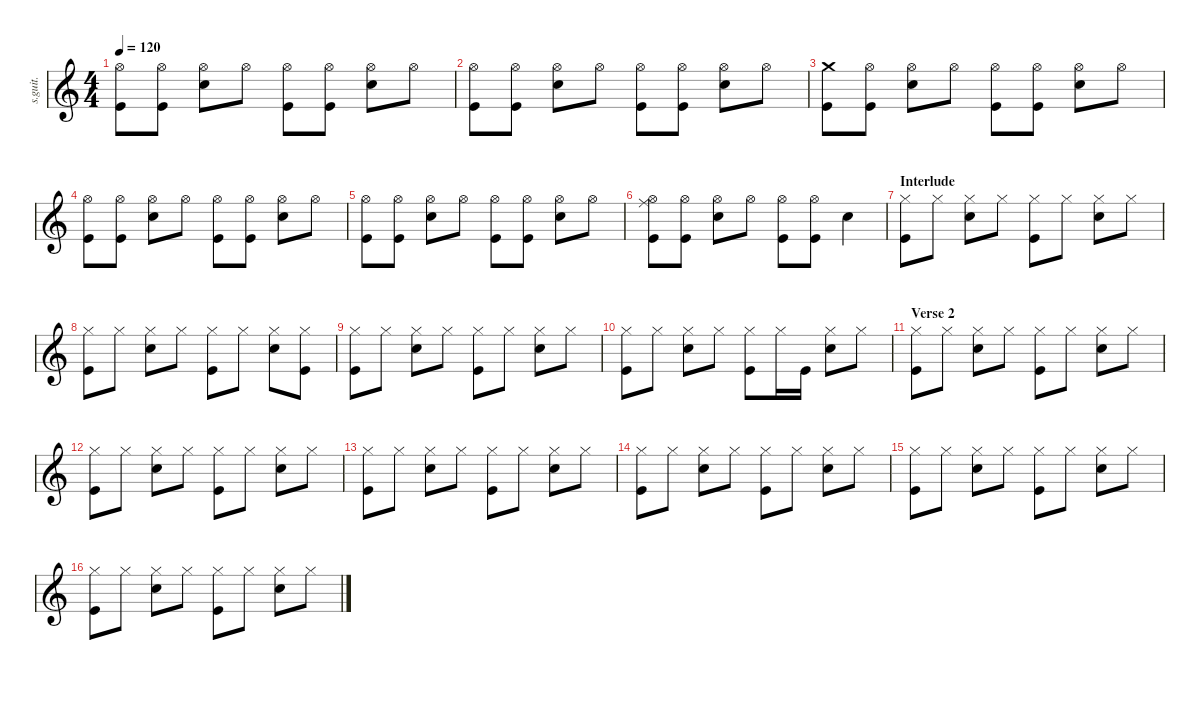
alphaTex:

\defaultSystemsLayout 4
\hideDynamics
\bracketExtendMode nobrackets
\track ("Patrick Wilson - Drums" "s.guit.") {instrument percussion}
\staff {score}
\articulation defaults
\ts (4 4)
\tempo 120
\clef g2
\ks c
("Hi-Hat (open)" "Kick (hit)").8{lyrics (0 "") lyrics (1 "") lyrics (2 "") lyrics (3 "") lyrics (4 "") dy f} ("Hi-Hat (open)" "Kick (hit)").8{lyrics (0 "") lyrics (1 "") lyrics (2 "") lyrics (3 "") lyrics (4 "")} ("Hi-Hat (open)" "Snare (hit) 2").8{lyrics (0 "") lyrics (1 "") lyrics (2 "") lyrics (3 "") lyrics (4 "")} "Hi-Hat (open)".8{lyrics (0 "") lyrics (1 "") lyrics (2 "") lyrics (3 "") lyrics (4 "")} ("Hi-Hat (open)" "Kick (hit)").8{lyrics (0 "") lyrics (1 "") lyrics (2 "") lyrics (3 "") lyrics (4 "")} ("Hi-Hat (open)" "Kick (hit)").8{lyrics (0 "") lyrics (1 "") lyrics (2 "") lyrics (3 "") lyrics (4 "")} ("Hi-Hat (open)" "Snare (hit) 2").8{lyrics (0 "") lyrics (1 "") lyrics (2 "") lyrics (3 "") lyrics (4 "")} "Hi-Hat (open)".8{lyrics (0 "") lyrics (1 "") lyrics (2 "") lyrics (3 "") lyrics (4 "")} |
("Hi-Hat (open)" "Kick (hit)").8{lyrics (0 "") lyrics (1 "") lyrics (2 "") lyrics (3 "") lyrics (4 "")} ("Hi-Hat (open)" "Kick (hit)").8{lyrics (0 "") lyrics (1 "") lyrics (2 "") lyrics (3 "") lyrics (4 "")} ("Hi-Hat (open)" "Snare (hit) 2").8{lyrics (0 "") lyrics (1 "") lyrics (2 "") lyrics (3 "") lyrics (4 "")} "Hi-Hat (open)".8{lyrics (0 "") lyrics (1 "") lyrics (2 "") lyrics (3 "") lyrics (4 "")} ("Hi-Hat (open)" "Kick (hit)").8{lyrics (0 "") lyrics (1 "") lyrics (2 "") lyrics (3 "") lyrics (4 "")} ("Hi-Hat (open)" "Kick (hit)").8{lyrics (0 "") lyrics (1 "") lyrics (2 "") lyrics (3 "") lyrics (4 "")} ("Hi-Hat (open)" "Snare (hit) 2").8{lyrics (0 "") lyrics (1 "") lyrics (2 "") lyrics (3 "") lyrics (4 "")} "Hi-Hat (open)".8{lyrics (0 "") lyrics (1 "") lyrics (2 "") lyrics (3 "") lyrics (4 "")} |
("Crash medium (hit)" "Kick (hit)").8{lyrics (0 "") lyrics (1 "") lyrics (2 "") lyrics (3 "") lyrics (4 "")} ("Hi-Hat (open)" "Kick (hit)").8{lyrics (0 "") lyrics (1 "") lyrics (2 "") lyrics (3 "") lyrics (4 "")} ("Hi-Hat (open)" "Snare (hit) 2").8{lyrics (0 "") lyrics (1 "") lyrics (2 "") lyrics (3 "") lyrics (4 "")} "Hi-Hat (open)".8{lyrics (0 "") lyrics (1 "") lyrics (2 "") lyrics (3 "") lyrics (4 "")} ("Hi-Hat (open)" "Kick (hit)").8{lyrics (0 "") lyrics (1 "") lyrics (2 "") lyrics (3 "") lyrics (4 "")} ("Hi-Hat (open)" "Kick (hit)").8{lyrics (0 "") lyrics (1 "") lyrics (2 "") lyrics (3 "") lyrics (4 "")} ("Hi-Hat (open)" "Snare (hit) 2").8{lyrics (0 "") lyrics (1 "") lyrics (2 "") lyrics (3 "") lyrics (4 "")} "Hi-Hat (open)".8{lyrics (0 "") lyrics (1 "") lyrics (2 "") lyrics (3 "") lyrics (4 "")} |
("Hi-Hat (open)" "Kick (hit)").8{lyrics (0 "") lyrics (1 "") lyrics (2 "") lyrics (3 "") lyrics (4 "")} ("Hi-Hat (open)" "Kick (hit)").8{lyrics (0 "") lyrics (1 "") lyrics (2 "") lyrics (3 "") lyrics (4 "")} ("Hi-Hat (open)" "Snare (hit) 2").8{lyrics (0 "") lyrics (1 "") lyrics (2 "") lyrics (3 "") lyrics (4 "")} "Hi-Hat (open)".8{lyrics (0 "") lyrics (1 "") lyrics (2 "") lyrics (3 "") lyrics (4 "")} ("Hi-Hat (open)" "Kick (hit)").8{lyrics (0 "") lyrics (1 "") lyrics (2 "") lyrics (3 "") lyrics (4 "")} ("Hi-Hat (open)" "Kick (hit)").8{lyrics (0 "") lyrics (1 "") lyrics (2 "") lyrics (3 "") lyrics (4 "")} ("Hi-Hat (open)" "Snare (hit) 2").8{lyrics (0 "") lyrics (1 "") lyrics (2 "") lyrics (3 "") lyrics (4 "")} "Hi-Hat (open)".8{lyrics (0 "") lyrics (1 "") lyrics (2 "") lyrics (3 "") lyrics (4 "")} |
("Hi-Hat (open)" "Kick (hit)").8{lyrics (0 "") lyrics (1 "") lyrics (2 "") lyrics (3 "") lyrics (4 "")} ("Hi-Hat (open)" "Kick (hit)").8{lyrics (0 "") lyrics (1 "") lyrics (2 "") lyrics (3 "") lyrics (4 "")} ("Hi-Hat (open)" "Snare (hit) 2").8{lyrics (0 "") lyrics (1 "") lyrics (2 "") lyrics (3 "") lyrics (4 "")} "Hi-Hat (open)".8{lyrics (0 "") lyrics (1 "") lyrics (2 "") lyrics (3 "") lyrics (4 "")} ("Hi-Hat (open)" "Kick (hit)").8{lyrics (0 "") lyrics (1 "") lyrics (2 "") lyrics (3 "") lyrics (4 "")} ("Hi-Hat (open)" "Kick (hit)").8{lyrics (0 "") lyrics (1 "") lyrics (2 "") lyrics (3 "") lyrics (4 "")} ("Hi-Hat (open)" "Snare (hit) 2").8{lyrics (0 "") lyrics (1 "") lyrics (2 "") lyrics (3 "") lyrics (4 "")} "Hi-Hat (open)".8{lyrics (0 "") lyrics (1 "") lyrics (2 "") lyrics (3 "") lyrics (4 "")} |
("Hi-Hat (open)" "Kick (hit)" "Ride (middle)").8{lyrics (0 "") lyrics (1 "") lyrics (2 "") lyrics (3 "") lyrics (4 "")} ("Hi-Hat (open)" "Kick (hit)").8{lyrics (0 "") lyrics (1 "") lyrics (2 "") lyrics (3 "") lyrics (4 "")} ("Hi-Hat (open)" "Snare (hit) 2").8{lyrics (0 "") lyrics (1 "") lyrics (2 "") lyrics (3 "") lyrics (4 "")} "Hi-Hat (open)".8{lyrics (0 "") lyrics (1 "") lyrics (2 "") lyrics (3 "") lyrics (4 "")} ("Hi-Hat (open)" "Kick (hit)").8{lyrics (0 "") lyrics (1 "") lyrics (2 "") lyrics (3 "") lyrics (4 "")} ("Hi-Hat (open)" "Kick (hit)").8{lyrics (0 "") lyrics (1 "") lyrics (2 "") lyrics (3 "") lyrics (4 "")} "Snare (hit) 2".4{lyrics (0 "") lyrics (1 "") lyrics (2 "") lyrics (3 "") lyrics (4 "")} |
\section ("" "Interlude")
("Hi-Hat (closed)" "Kick (hit)").8{lyrics (0 "") lyrics (1 "") lyrics (2 "") lyrics (3 "") lyrics (4 "")} "Hi-Hat (closed)".8{lyrics (0 "") lyrics (1 "") lyrics (2 "") lyrics (3 "") lyrics (4 "")} ("Hi-Hat (closed)" "Snare (hit) 2").8{lyrics (0 "") lyrics (1 "") lyrics (2 "") lyrics (3 "") lyrics (4 "")} "Hi-Hat (closed)".8{lyrics (0 "") lyrics (1 "") lyrics (2 "") lyrics (3 "") lyrics (4 "")} ("Hi-Hat (closed)" "Kick (hit)").8{lyrics (0 "") lyrics (1 "") lyrics (2 "") lyrics (3 "") lyrics (4 "")} "Hi-Hat (closed)".8{lyrics (0 "") lyrics (1 "") lyrics (2 "") lyrics (3 "") lyrics (4 "")} ("Hi-Hat (closed)" "Snare (hit) 2").8{lyrics (0 "") lyrics (1 "") lyrics (2 "") lyrics (3 "") lyrics (4 "")} "Hi-Hat (closed)".8{lyrics (0 "") lyrics (1 "") lyrics (2 "") lyrics (3 "") lyrics (4 "")} |
("Hi-Hat (closed)" "Kick (hit)").8{lyrics (0 "") lyrics (1 "") lyrics (2 "") lyrics (3 "") lyrics (4 "")} "Hi-Hat (closed)".8{lyrics (0 "") lyrics (1 "") lyrics (2 "") lyrics (3 "") lyrics (4 "")} ("Hi-Hat (closed)" "Snare (hit) 2").8{lyrics (0 "") lyrics (1 "") lyrics (2 "") lyrics (3 "") lyrics (4 "")} "Hi-Hat (closed)".8{lyrics (0 "") lyrics (1 "") lyrics (2 "") lyrics (3 "") lyrics (4 "")} ("Hi-Hat (closed)" "Kick (hit)").8{lyrics (0 "") lyrics (1 "") lyrics (2 "") lyrics (3 "") lyrics (4 "")} "Hi-Hat (closed)".8{lyrics (0 "") lyrics (1 "") lyrics (2 "") lyrics (3 "") lyrics (4 "")} ("Hi-Hat (closed)" "Snare (hit) 2").8{lyrics (0 "") lyrics (1 "") lyrics (2 "") lyrics (3 "") lyrics (4 "")} ("Hi-Hat (closed)" "Kick (hit)").8{lyrics (0 "") lyrics (1 "") lyrics (2 "") lyrics (3 "") lyrics (4 "")} |
("Hi-Hat (closed)" "Kick (hit)").8{lyrics (0 "") lyrics (1 "") lyrics (2 "") lyrics (3 "") lyrics (4 "")} "Hi-Hat (closed)".8{lyrics (0 "") lyrics (1 "") lyrics (2 "") lyrics (3 "") lyrics (4 "")} ("Hi-Hat (closed)" "Snare (hit) 2").8{lyrics (0 "") lyrics (1 "") lyrics (2 "") lyrics (3 "") lyrics (4 "")} "Hi-Hat (closed)".8{lyrics (0 "") lyrics (1 "") lyrics (2 "") lyrics (3 "") lyrics (4 "")} ("Hi-Hat (closed)" "Kick (hit)").8{lyrics (0 "") lyrics (1 "") lyrics (2 "") lyrics (3 "") lyrics (4 "")} "Hi-Hat (closed)".8{lyrics (0 "") lyrics (1 "") lyrics (2 "") lyrics (3 "") lyrics (4 "")} ("Hi-Hat (closed)" "Snare (hit) 2").8{lyrics (0 "") lyrics (1 "") lyrics (2 "") lyrics (3 "") lyrics (4 "")} "Hi-Hat (closed)".8{lyrics (0 "") lyrics (1 "") lyrics (2 "") lyrics (3 "") lyrics (4 "")} |
("Hi-Hat (closed)" "Kick (hit)").8{lyrics (0 "") lyrics (1 "") lyrics (2 "") lyrics (3 "") lyrics (4 "")} "Hi-Hat (closed)".8{lyrics (0 "") lyrics (1 "") lyrics (2 "") lyrics (3 "") lyrics (4 "")} ("Hi-Hat (closed)" "Snare (hit) 2").8{lyrics (0 "") lyrics (1 "") lyrics (2 "") lyrics (3 "") lyrics (4 "")} "Hi-Hat (closed)".8{lyrics (0 "") lyrics (1 "") lyrics (2 "") lyrics (3 "") lyrics (4 "")} ("Hi-Hat (closed)" "Kick (hit)").8{lyrics (0 "") lyrics (1 "") lyrics (2 "") lyrics (3 "") lyrics (4 "")} "Hi-Hat (closed)".16{lyrics (0 "") lyrics (1 "") lyrics (2 "") lyrics (3 "") lyrics (4 "")} "Kick (hit)".16{lyrics (0 "") lyrics (1 "") lyrics (2 "") lyrics (3 "") lyrics (4 "")} ("Hi-Hat (closed)" "Snare (hit) 2").8{lyrics (0 "") lyrics (1 "") lyrics (2 "") lyrics (3 "") lyrics (4 "")} "Hi-Hat (closed)".8{lyrics (0 "") lyrics (1 "") lyrics (2 "") lyrics (3 "") lyrics (4 "")} |
\section ("" "Verse 2")
("Hi-Hat (closed)" "Kick (hit)").8{lyrics (0 "") lyrics (1 "") lyrics (2 "") lyrics (3 "") lyrics (4 "")} "Hi-Hat (closed)".8{lyrics (0 "") lyrics (1 "") lyrics (2 "") lyrics (3 "") lyrics (4 "")} ("Hi-Hat (closed)" "Snare (hit) 2").8{lyrics (0 "") lyrics (1 "") lyrics (2 "") lyrics (3 "") lyrics (4 "")} "Hi-Hat (closed)".8{lyrics (0 "") lyrics (1 "") lyrics (2 "") lyrics (3 "") lyrics (4 "")} ("Hi-Hat (closed)" "Kick (hit)").8{lyrics (0 "") lyrics (1 "") lyrics (2 "") lyrics (3 "") lyrics (4 "")} "Hi-Hat (closed)".8{lyrics (0 "") lyrics (1 "") lyrics (2 "") lyrics (3 "") lyrics (4 "")} ("Hi-Hat (closed)" "Snare (hit) 2").8{lyrics (0 "") lyrics (1 "") lyrics (2 "") lyrics (3 "") lyrics (4 "")} "Hi-Hat (closed)".8{lyrics (0 "") lyrics (1 "") lyrics (2 "") lyrics (3 "") lyrics (4 "")} |
("Hi-Hat (closed)" "Kick (hit)").8{lyrics (0 "") lyrics (1 "") lyrics (2 "") lyrics (3 "") lyrics (4 "")} "Hi-Hat (closed)".8{lyrics (0 "") lyrics (1 "") lyrics (2 "") lyrics (3 "") lyrics (4 "")} ("Hi-Hat (closed)" "Snare (hit) 2").8{lyrics (0 "") lyrics (1 "") lyrics (2 "") lyrics (3 "") lyrics (4 "")} "Hi-Hat (closed)".8{lyrics (0 "") lyrics (1 "") lyrics (2 "") lyrics (3 "") lyrics (4 "")} ("Hi-Hat (closed)" "Kick (hit)").8{lyrics (0 "") lyrics (1 "") lyrics (2 "") lyrics (3 "") lyrics (4 "")} "Hi-Hat (closed)".8{lyrics (0 "") lyrics (1 "") lyrics (2 "") lyrics (3 "") lyrics (4 "")} ("Hi-Hat (closed)" "Snare (hit) 2").8{lyrics (0 "") lyrics (1 "") lyrics (2 "") lyrics (3 "") lyrics (4 "")} "Hi-Hat (closed)".8{lyrics (0 "") lyrics (1 "") lyrics (2 "") lyrics (3 "") lyrics (4 "")} |
("Hi-Hat (closed)" "Kick (hit)").8{lyrics (0 "") lyrics (1 "") lyrics (2 "") lyrics (3 "") lyrics (4 "")} "Hi-Hat (closed)".8{lyrics (0 "") lyrics (1 "") lyrics (2 "") lyrics (3 "") lyrics (4 "")} ("Hi-Hat (closed)" "Snare (hit) 2").8{lyrics (0 "") lyrics (1 "") lyrics (2 "") lyrics (3 "") lyrics (4 "")} "Hi-Hat (closed)".8{lyrics (0 "") lyrics (1 "") lyrics (2 "") lyrics (3 "") lyrics (4 "")} ("Hi-Hat (closed)" "Kick (hit)").8{lyrics (0 "") lyrics (1 "") lyrics (2 "") lyrics (3 "") lyrics (4 "")} "Hi-Hat (closed)".8{lyrics (0 "") lyrics (1 "") lyrics (2 "") lyrics (3 "") lyrics (4 "")} ("Hi-Hat (closed)" "Snare (hit) 2").8{lyrics (0 "") lyrics (1 "") lyrics (2 "") lyrics (3 "") lyrics (4 "")} "Hi-Hat (closed)".8{lyrics (0 "") lyrics (1 "") lyrics (2 "") lyrics (3 "") lyrics (4 "")} |
("Hi-Hat (closed)" "Kick (hit)").8{lyrics (0 "") lyrics (1 "") lyrics (2 "") lyrics (3 "") lyrics (4 "")} "Hi-Hat (closed)".8{lyrics (0 "") lyrics (1 "") lyrics (2 "") lyrics (3 "") lyrics (4 "")} ("Hi-Hat (closed)" "Snare (hit) 2").8{lyrics (0 "") lyrics (1 "") lyrics (2 "") lyrics (3 "") lyrics (4 "")} "Hi-Hat (closed)".8{lyrics (0 "") lyrics (1 "") lyrics (2 "") lyrics (3 "") lyrics (4 "")} ("Hi-Hat (closed)" "Kick (hit)").8{lyrics (0 "") lyrics (1 "") lyrics (2 "") lyrics (3 "") lyrics (4 "")} "Hi-Hat (closed)".8{lyrics (0 "") lyrics (1 "") lyrics (2 "") lyrics (3 "") lyrics (4 "")} ("Hi-Hat (closed)" "Snare (hit) 2").8{lyrics (0 "") lyrics (1 "") lyrics (2 "") lyrics (3 "") lyrics (4 "")} "Hi-Hat (closed)".8{lyrics (0 "") lyrics (1 "") lyrics (2 "") lyrics (3 "") lyrics (4 "")} |
("Hi-Hat (closed)" "Kick (hit)").8{lyrics (0 "") lyrics (1 "") lyrics (2 "") lyrics (3 "") lyrics (4 "")} "Hi-Hat (closed)".8{lyrics (0 "") lyrics (1 "") lyrics (2 "") lyrics (3 "") lyrics (4 "")} ("Hi-Hat (closed)" "Snare (hit) 2").8{lyrics (0 "") lyrics (1 "") lyrics (2 "") lyrics (3 "") lyrics (4 "")} "Hi-Hat (closed)".8{lyrics (0 "") lyrics (1 "") lyrics (2 "") lyrics (3 "") lyrics (4 "")} ("Hi-Hat (closed)" "Kick (hit)").8{lyrics (0 "") lyrics (1 "") lyrics (2 "") lyrics (3 "") lyrics (4 "")} "Hi-Hat (closed)".8{lyrics (0 "") lyrics (1 "") lyrics (2 "") lyrics (3 "") lyrics (4 "")} ("Hi-Hat (closed)" "Snare (hit) 2").8{lyrics (0 "") lyrics (1 "") lyrics (2 "") lyrics (3 "") lyrics (4 "")} "Hi-Hat (closed)".8{lyrics (0 "") lyrics (1 "") lyrics (2 "") lyrics (3 "") lyrics (4 "")} |
("Hi-Hat (closed)" "Kick (hit)").8{lyrics (0 "") lyrics (1 "") lyrics (2 "") lyrics (3 "") lyrics (4 "")} "Hi-Hat (closed)".8{lyrics (0 "") lyrics (1 "") lyrics (2 "") lyrics (3 "") lyrics (4 "")} ("Hi-Hat (closed)" "Snare (hit) 2").8{lyrics (0 "") lyrics (1 "") lyrics (2 "") lyrics (3 "") lyrics (4 "")} "Hi-Hat (closed)".8{lyrics (0 "") lyrics (1 "") lyrics (2 "") lyrics (3 "") lyrics (4 "")} ("Hi-Hat (closed)" "Kick (hit)").8{lyrics (0 "") lyrics (1 "") lyrics (2 "") lyrics (3 "") lyrics (4 "")} "Hi-Hat (closed)".8{lyrics (0 "") lyrics (1 "") lyrics (2 "") lyrics (3 "") lyrics (4 "")} ("Hi-Hat (closed)" "Snare (hit) 2").8{lyrics (0 "") lyrics (1 "") lyrics (2 "") lyrics (3 "") lyrics (4 "")} "Hi-Hat (closed)".8{lyrics (0 "") lyrics (1 "") lyrics (2 "") lyrics (3 "") lyrics (4 "")}
